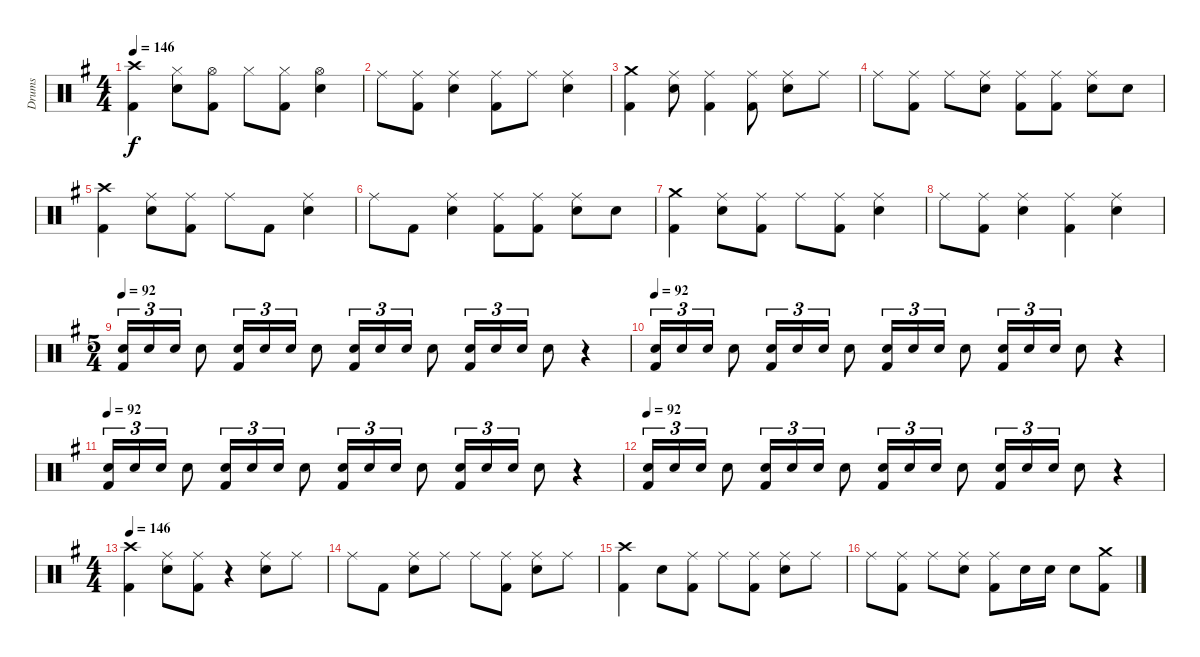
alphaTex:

\track ("Drums" "Drums") {instrument percussion}
\staff {score}
\articulation defaults
\ts (4 4)
\tempo 146
\clef neutral
\ks g
("Kick (hit) 2" "Crash high (hit)").4{dy f} ("Snare (hit) 2" "Hi-Hat (closed)").8 ("Kick (hit) 2" "Hi-Hat (open)").8 "Hi-Hat (closed)".8 ("Kick (hit) 2" "Hi-Hat (closed)").8 ("Snare (hit) 2" "Hi-Hat (open)").4 |
"Ride (middle)".8 ("Kick (hit) 2" "Ride (middle)").8 ("Snare (hit) 2" "Ride (middle)").4 ("Kick (hit) 2" "Ride (middle)").8 "Ride (middle)".8 ("Snare (hit) 2" "Ride (middle)").4 |
("Kick (hit) 2" "Crash medium (hit)").4 ("Snare (hit) 2" "Ride (middle)").8 ("Kick (hit) 2" "Ride (middle)").4 ("Kick (hit) 2" "Ride (middle)").8 ("Snare (hit) 2" "Ride (middle)").8 "Ride (middle)".8 |
"Ride (middle)".8 ("Kick (hit) 2" "Ride (middle)").8 "Ride (middle)".8 ("Snare (hit) 2" "Ride (middle)").8 ("Kick (hit) 2" "Ride (middle)").8 ("Kick (hit) 2" "Ride (middle)").8 ("Snare (hit) 2" "Ride (middle)").8 "Snare (hit) 2".8 |
("Kick (hit) 2" "Crash high (hit)").4 ("Snare (hit) 2" "Ride (middle)").8 ("Kick (hit) 2" "Ride (middle)").8 "Ride (middle)".8 "Kick (hit) 2".8 ("Snare (hit) 2" "Ride (middle)").4 |
"Ride (middle)".8 "Kick (hit) 2".8 ("Snare (hit) 2" "Ride (middle)").4 ("Kick (hit) 2" "Ride (middle)").8 ("Kick (hit) 2" "Ride (middle)").8 ("Snare (hit) 2" "Ride (middle)").8 "Snare (hit) 2".8 |
("Kick (hit) 2" "Crash medium (hit)").4 ("Snare (hit) 2" "Ride (middle)").8 ("Kick (hit) 2" "Ride (middle)").8 "Ride (middle)".8 ("Kick (hit) 2" "Ride (middle)").8 ("Snare (hit) 2" "Ride (middle)").4 |
"Ride (middle)".8 ("Kick (hit) 2" "Ride (middle)").8 ("Snare (hit) 2" "Ride (middle)").4 ("Kick (hit) 2" "Ride (middle)").4 ("Snare (hit) 2" "Ride (middle)").4 |
\ts (5 4)
\tempo 92
("Kick (hit) 2" "Snare (hit) 2").16{tu (3 2)} "Snare (hit) 2".16{tu (3 2)} "Snare (hit) 2".16{tu (3 2)} "Snare (hit) 2".8 ("Kick (hit) 2" "Snare (hit) 2").16{tu (3 2)} "Snare (hit) 2".16{tu (3 2)} "Snare (hit) 2".16{tu (3 2)} "Snare (hit) 2".8 ("Kick (hit) 2" "Snare (hit) 2").16{tu (3 2)} "Snare (hit) 2".16{tu (3 2)} "Snare (hit) 2".16{tu (3 2)} "Snare (hit) 2".8 ("Kick (hit) 2" "Snare (hit) 2").16{tu (3 2)} "Snare (hit) 2".16{tu (3 2)} "Snare (hit) 2".16{tu (3 2)} "Snare (hit) 2".8 r.4 |
\tempo 92
("Kick (hit) 2" "Snare (hit) 2").16{tu (3 2)} "Snare (hit) 2".16{tu (3 2)} "Snare (hit) 2".16{tu (3 2)} "Snare (hit) 2".8 ("Kick (hit) 2" "Snare (hit) 2").16{tu (3 2)} "Snare (hit) 2".16{tu (3 2)} "Snare (hit) 2".16{tu (3 2)} "Snare (hit) 2".8 ("Kick (hit) 2" "Snare (hit) 2").16{tu (3 2)} "Snare (hit) 2".16{tu (3 2)} "Snare (hit) 2".16{tu (3 2)} "Snare (hit) 2".8 ("Kick (hit) 2" "Snare (hit) 2").16{tu (3 2)} "Snare (hit) 2".16{tu (3 2)} "Snare (hit) 2".16{tu (3 2)} "Snare (hit) 2".8 r.4 |
\tempo 92
("Kick (hit) 2" "Snare (hit) 2").16{tu (3 2)} "Snare (hit) 2".16{tu (3 2)} "Snare (hit) 2".16{tu (3 2)} "Snare (hit) 2".8 ("Kick (hit) 2" "Snare (hit) 2").16{tu (3 2)} "Snare (hit) 2".16{tu (3 2)} "Snare (hit) 2".16{tu (3 2)} "Snare (hit) 2".8 ("Kick (hit) 2" "Snare (hit) 2").16{tu (3 2)} "Snare (hit) 2".16{tu (3 2)} "Snare (hit) 2".16{tu (3 2)} "Snare (hit) 2".8 ("Kick (hit) 2" "Snare (hit) 2").16{tu (3 2)} "Snare (hit) 2".16{tu (3 2)} "Snare (hit) 2".16{tu (3 2)} "Snare (hit) 2".8 r.4 |
\tempo 92
("Kick (hit) 2" "Snare (hit) 2").16{tu (3 2)} "Snare (hit) 2".16{tu (3 2)} "Snare (hit) 2".16{tu (3 2)} "Snare (hit) 2".8 ("Kick (hit) 2" "Snare (hit) 2").16{tu (3 2)} "Snare (hit) 2".16{tu (3 2)} "Snare (hit) 2".16{tu (3 2)} "Snare (hit) 2".8 ("Kick (hit) 2" "Snare (hit) 2").16{tu (3 2)} "Snare (hit) 2".16{tu (3 2)} "Snare (hit) 2".16{tu (3 2)} "Snare (hit) 2".8 ("Kick (hit) 2" "Snare (hit) 2").16{tu (3 2)} "Snare (hit) 2".16{tu (3 2)} "Snare (hit) 2".16{tu (3 2)} "Snare (hit) 2".8 r.4 |
\ts (4 4)
\tempo 146
("Kick (hit) 2" "Crash high (hit)").4 ("Snare (hit) 2" "Ride (middle)").8 ("Kick (hit) 2" "Ride (middle)").8 r.4 ("Snare (hit) 2" "Ride (middle)").8 "Ride (middle)".8 |
"Ride (middle)".8 "Kick (hit) 2".8 ("Snare (hit) 2" "Ride (middle)").8 "Ride (middle)".8 "Ride (middle)".8 ("Kick (hit) 2" "Ride (middle)").8 ("Snare (hit) 2" "Ride (middle)").8 "Ride (middle)".8 |
("Kick (hit) 2" "Crash high (hit)").4 "Snare (hit) 2".8 ("Kick (hit) 2" "Ride (middle)").8 "Ride (middle)".8 ("Kick (hit) 2" "Ride (middle)").8 ("Snare (hit) 2" "Ride (middle)").8 "Ride (middle)".8 |
"Ride (middle)".8 ("Kick (hit) 2" "Ride (middle)").8 "Ride (middle)".8 ("Snare (hit) 2" "Ride (middle)").8 ("Kick (hit) 2" "Ride (middle)").8 "Snare (hit) 2".16 "Snare (hit) 2".16 "Snare (hit) 2".8 ("Kick (hit) 2" "Crash medium (hit)").8
